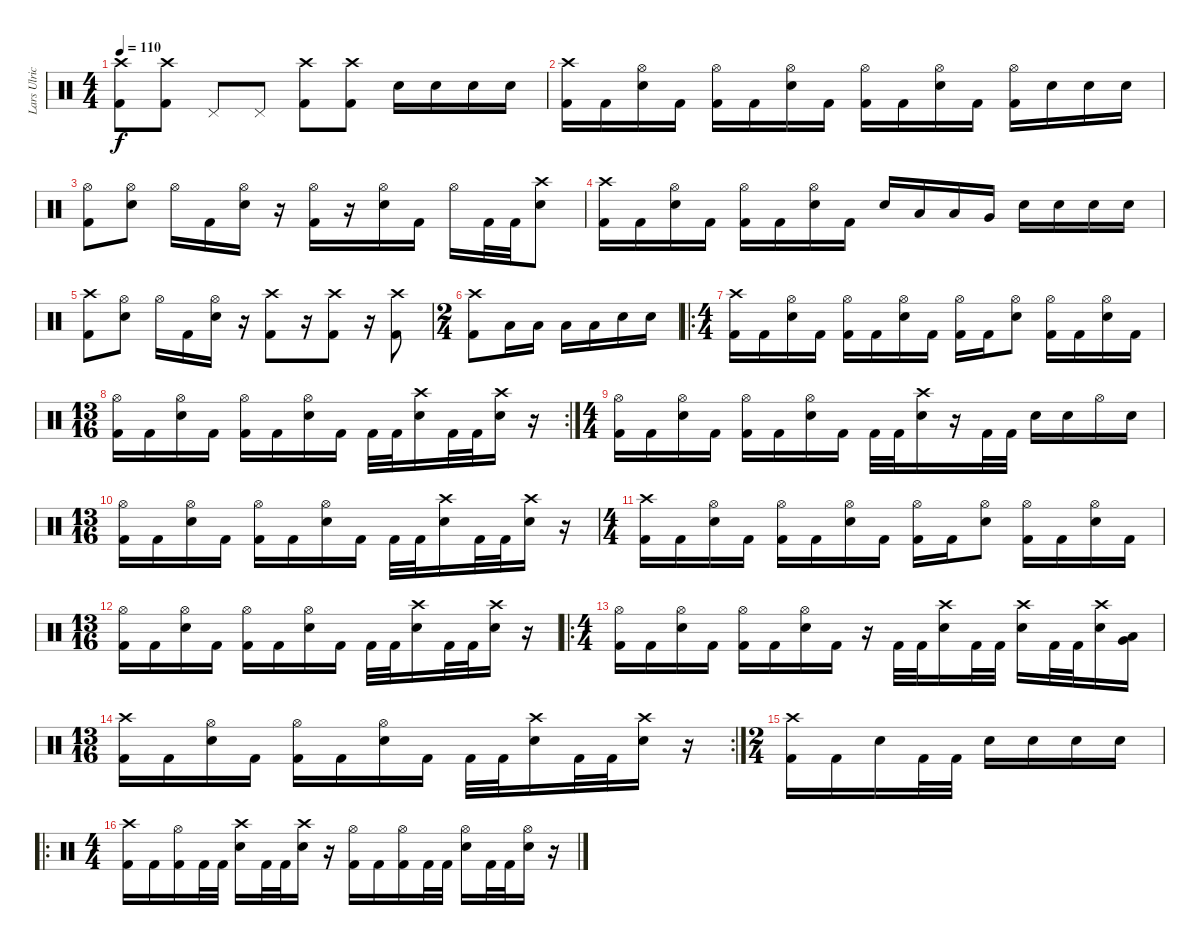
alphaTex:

\track ("Lars Ulrich" "Lars Ulric") {instrument percussion}
\staff {score}
\articulation defaults
\ts (4 4)
\tempo 110
\clef neutral
\ks c
("Crash high (hit)" "Kick (hit) 2").8{dy f} ("Crash high (hit)" "Kick (hit) 2").8 "Pedal Hi-Hat (hit)".8 "Pedal Hi-Hat (hit)".8 ("Crash high (hit)" "Kick (hit) 2").8 ("Crash high (hit)" "Kick (hit) 2").8 "Snare (hit) 2".16 "Snare (hit) 2".16 "Snare (hit) 2".16 "Snare (hit) 2".16 |
("Crash high (hit)" "Kick (hit) 2").16 "Kick (hit) 2".16 ("Hi-Hat (open)" "Snare (hit) 2").16 "Kick (hit) 2".16 ("Hi-Hat (open)" "Kick (hit) 2").16 "Kick (hit) 2".16 ("Hi-Hat (open)" "Snare (hit) 2").16 "Kick (hit) 2".16 ("Hi-Hat (open)" "Kick (hit) 2").16 "Kick (hit) 2".16 ("Hi-Hat (open)" "Snare (hit) 2").16 "Kick (hit) 2".16 ("Hi-Hat (open)" "Kick (hit) 2").16 "Snare (hit) 2".16 "Snare (hit) 2".16 "Snare (hit) 2".16 |
("Hi-Hat (open)" "Kick (hit) 2").8 ("Hi-Hat (open)" "Snare (hit) 2").8 "Hi-Hat (open)".16 "Kick (hit) 2".16 ("Hi-Hat (open)" "Snare (hit) 2").16 r.16 ("Hi-Hat (open)" "Kick (hit) 2").16 r.16 ("Hi-Hat (open)" "Snare (hit) 2").16 "Kick (hit) 2".16 "Hi-Hat (open)".16 "Kick (hit) 2".32 "Kick (hit) 2".32 ("Crash high (hit)" "Snare (hit) 2").8 |
("Crash high (hit)" "Kick (hit) 2").16 "Kick (hit) 2".16 ("Hi-Hat (open)" "Snare (hit) 2").16 "Kick (hit) 2".16 ("Hi-Hat (open)" "Kick (hit) 2").16 "Kick (hit) 2".16 ("Hi-Hat (open)" "Snare (hit) 2").16 "Kick (hit) 2".16 "Snare (hit) 2".16 "Low Tom (hit)".16 "Low Tom (hit)".16 "Very Low Tom (hit)".16 "Snare (hit) 2".16 "Snare (hit) 2".16 "Snare (hit) 2".16 "Snare (hit) 2".16 |
("Crash high (hit)" "Kick (hit) 2").8 ("Hi-Hat (open)" "Snare (hit) 2").8 "Hi-Hat (open)".16 "Kick (hit) 2".16 ("Hi-Hat (open)" "Snare (hit) 2").16 r.16 ("Crash high (hit)" "Kick (hit) 2").8 r.16 ("Crash high (hit)" "Kick (hit) 2").8 r.16 ("Crash high (hit)" "Kick (hit) 2").8 |
\ts (2 4)
("Crash high (hit)" "Kick (hit) 2").8 "Low Tom (hit)".16 "Low Tom (hit)".16 "Low Tom (hit)".16 "Low Tom (hit)".16 "Snare (hit) 2".16 "Snare (hit) 2".16 |
\ro
\ts (4 4)
("Crash high (hit)" "Kick (hit) 2").16 "Kick (hit) 2".16 ("Hi-Hat (open)" "Snare (hit) 2").16 "Kick (hit) 2".16 ("Hi-Hat (open)" "Kick (hit) 2").16 "Kick (hit) 2".16 ("Hi-Hat (open)" "Snare (hit) 2").16 "Kick (hit) 2".16 ("Hi-Hat (open)" "Kick (hit) 2").16 "Kick (hit) 2".16 ("Hi-Hat (open)" "Snare (hit) 2").8 ("Hi-Hat (open)" "Kick (hit) 2").16 "Kick (hit) 2".16 ("Hi-Hat (open)" "Snare (hit) 2").16 "Kick (hit) 2".16 |
\rc 2
\ts (13 16)
("Hi-Hat (open)" "Kick (hit) 2").16 "Kick (hit) 2".16 ("Hi-Hat (open)" "Snare (hit) 2").16 "Kick (hit) 2".16 ("Hi-Hat (open)" "Kick (hit) 2").16 "Kick (hit) 2".16 ("Hi-Hat (open)" "Snare (hit) 2").16 "Kick (hit) 2".16 "Kick (hit) 2".32 "Kick (hit) 2".32 ("Crash high (hit)" "Snare (hit) 2").16 "Kick (hit) 2".32 "Kick (hit) 2".32 ("Crash high (hit)" "Snare (hit) 2").16 r.16 |
\ts (4 4)
("Hi-Hat (open)" "Kick (hit) 2").16 "Kick (hit) 2".16 ("Hi-Hat (open)" "Snare (hit) 2").16 "Kick (hit) 2".16 ("Hi-Hat (open)" "Kick (hit) 2").16 "Kick (hit) 2".16 ("Hi-Hat (open)" "Snare (hit) 2").16 "Kick (hit) 2".16 "Kick (hit) 2".32 "Kick (hit) 2".32 ("Crash high (hit)" "Snare (hit) 2").16 r.16 "Kick (hit) 2".32 "Kick (hit) 2".32 "Snare (hit) 2".16 "Snare (hit) 2".16 "Hi-Hat (open)".16 "Snare (hit) 2".16 |
\ts (13 16)
("Hi-Hat (open)" "Kick (hit) 2").16 "Kick (hit) 2".16 ("Hi-Hat (open)" "Snare (hit) 2").16 "Kick (hit) 2".16 ("Hi-Hat (open)" "Kick (hit) 2").16 "Kick (hit) 2".16 ("Hi-Hat (open)" "Snare (hit) 2").16 "Kick (hit) 2".16 "Kick (hit) 2".32 "Kick (hit) 2".32 ("Crash high (hit)" "Snare (hit) 2").16 "Kick (hit) 2".32 "Kick (hit) 2".32 ("Crash high (hit)" "Snare (hit) 2").16 r.16 |
\ts (4 4)
("Crash high (hit)" "Kick (hit) 2").16 "Kick (hit) 2".16 ("Hi-Hat (open)" "Snare (hit) 2").16 "Kick (hit) 2".16 ("Hi-Hat (open)" "Kick (hit) 2").16 "Kick (hit) 2".16 ("Hi-Hat (open)" "Snare (hit) 2").16 "Kick (hit) 2".16 ("Hi-Hat (open)" "Kick (hit) 2").16 "Kick (hit) 2".16 ("Hi-Hat (open)" "Snare (hit) 2").8 ("Hi-Hat (open)" "Kick (hit) 2").16 "Kick (hit) 2".16 ("Hi-Hat (open)" "Snare (hit) 2").16 "Kick (hit) 2".16 |
\ts (13 16)
("Hi-Hat (open)" "Kick (hit) 2").16 "Kick (hit) 2".16 ("Hi-Hat (open)" "Snare (hit) 2").16 "Kick (hit) 2".16 ("Hi-Hat (open)" "Kick (hit) 2").16 "Kick (hit) 2".16 ("Hi-Hat (open)" "Snare (hit) 2").16 "Kick (hit) 2".16 "Kick (hit) 2".32 "Kick (hit) 2".32 ("Crash high (hit)" "Snare (hit) 2").16 "Kick (hit) 2".32 "Kick (hit) 2".32 ("Crash high (hit)" "Snare (hit) 2").16 r.16 |
\ro
\ts (4 4)
("Hi-Hat (open)" "Kick (hit) 2").16 "Kick (hit) 2".16 ("Hi-Hat (open)" "Snare (hit) 2").16 "Kick (hit) 2".16 ("Hi-Hat (open)" "Kick (hit) 2").16 "Kick (hit) 2".16 ("Hi-Hat (open)" "Snare (hit) 2").16 "Kick (hit) 2".16 r.16 "Kick (hit) 2".32 "Kick (hit) 2".32 ("Crash high (hit)" "Snare (hit) 2").16 "Kick (hit) 2".32 "Kick (hit) 2".32 ("Crash high (hit)" "Snare (hit) 2").16 "Kick (hit) 2".32 "Kick (hit) 2".32 ("Crash high (hit)" "Snare (hit) 2").16 ("Very Low Tom (hit)" "Low Tom (hit)").16 |
\rc 2
\ts (13 16)
("Crash high (hit)" "Kick (hit) 2").16 "Kick (hit) 2".16 ("Hi-Hat (open)" "Snare (hit) 2").16 "Kick (hit) 2".16 ("Hi-Hat (open)" "Kick (hit) 2").16 "Kick (hit) 2".16 ("Hi-Hat (open)" "Snare (hit) 2").16 "Kick (hit) 2".16 "Kick (hit) 2".32 "Kick (hit) 2".32 ("Crash high (hit)" "Snare (hit) 2").16 "Kick (hit) 2".32 "Kick (hit) 2".32 ("Crash high (hit)" "Snare (hit) 2").16 r.16 |
\ts (2 4)
("Crash high (hit)" "Kick (hit) 2").16 "Kick (hit) 2".16 "Snare (hit) 2".16 "Kick (hit) 2".32 "Kick (hit) 2".32 "Snare (hit) 2".16 "Snare (hit) 2".16 "Snare (hit) 2".16 "Snare (hit) 2".16 |
\ro
\ts (4 4)
("Crash high (hit)" "Kick (hit) 2").16 "Kick (hit) 2".16 ("Hi-Hat (open)" "Kick (hit) 2").16 "Kick (hit) 2".32 "Kick (hit) 2".32 ("Crash high (hit)" "Snare (hit) 2").16 "Kick (hit) 2".32 "Kick (hit) 2".32 ("Crash high (hit)" "Snare (hit) 2").16 r.16 ("Hi-Hat (open)" "Kick (hit) 2").16 "Kick (hit) 2".16 ("Hi-Hat (open)" "Kick (hit) 2").16 "Kick (hit) 2".32 "Kick (hit) 2".32 ("Hi-Hat (open)" "Snare (hit) 2").16 "Kick (hit) 2".32 "Kick (hit) 2".32 ("Hi-Hat (open)" "Snare (hit) 2").16 r.16
